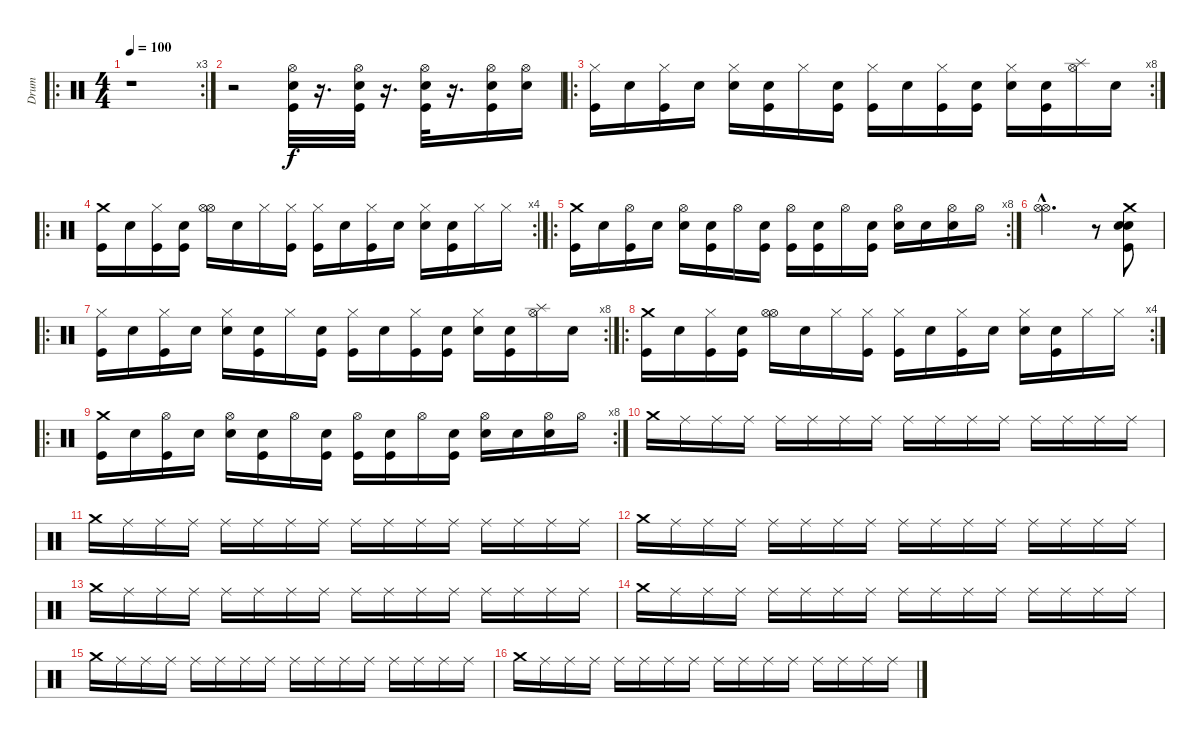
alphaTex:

\track ("Drum" "Drum") {instrument percussion}
\staff {score}
\articulation defaults
\ro
\rc 3
\ts (4 4)
\tempo 100
\clef neutral
\ks c
r.1{dy f} |
r.2 ("Hi-Hat (open)" "Electric Snare (hit)" "Kick (hit)").32 r.16{d} ("Hi-Hat (open)" "Electric Snare (hit)" "Kick (hit)").32 r.16{d} ("Hi-Hat (open)" "Electric Snare (hit)" "Kick (hit)").32 r.16{d} ("Hi-Hat (open)" "Electric Snare (hit)" "Kick (hit)").16 ("Hi-Hat (open)" "Electric Snare (hit)").16 |
\ro
\rc 8
("Hi-Hat (closed)" "Kick (hit)").16 "Snare (hit)".16 ("Hi-Hat (closed)" "Kick (hit)").16 "Snare (hit)".16 ("Hi-Hat (closed)" "Electric Snare (hit)").16 ("Snare (hit)" "Kick (hit)").16 "Hi-Hat (closed)".16 ("Snare (hit)" "Kick (hit)").16 ("Hi-Hat (closed)" "Kick (hit)").16 "Snare (hit)".16 ("Hi-Hat (closed)" "Kick (hit)").16 ("Snare (hit)" "Kick (hit)").16 ("Hi-Hat (closed)" "Electric Snare (hit)").16 ("Snare (hit)" "Kick (hit)").16 ("Hi-Hat (open)" "Splash (hit)").16 "Snare (hit)".16 |
\ro
\rc 4
("Crash medium (hit)" "Kick (hit)").16 "Snare (hit)".16 ("Hi-Hat (closed)" "Kick (hit)").16 ("Snare (hit)" "Kick (hit)").16 ("Hi-Hat (open)" "Hi-Hat (open)").16 "Snare (hit)".16 "Hi-Hat (closed)".16 ("Hi-Hat (closed)" "Kick (hit)").16 ("Hi-Hat (closed)" "Kick (hit)").16 "Snare (hit)".16 ("Hi-Hat (closed)" "Kick (hit)").16 "Snare (hit)".16 ("Hi-Hat (closed)" "Electric Snare (hit)").16 ("Snare (hit)" "Kick (hit)").16 "Hi-Hat (closed)".16 "Hi-Hat (closed)".16 |
\ro
\rc 8
("Crash medium (hit)" "Kick (hit)").16 "Snare (hit)".16 ("Hi-Hat (open)" "Kick (hit)").16 "Snare (hit)".16 ("Hi-Hat (open)" "Electric Snare (hit)").16 ("Snare (hit)" "Kick (hit)").16 "Hi-Hat (open)".16 ("Snare (hit)" "Kick (hit)").16 ("Hi-Hat (open)" "Kick (hit)").16 ("Snare (hit)" "Kick (hit)").16 "Hi-Hat (open)".16 ("Snare (hit)" "Kick (hit)").16 ("Hi-Hat (open)" "Electric Snare (hit)").16 "Snare (hit)".16 ("Hi-Hat (open)" "Electric Snare (hit)").16 "Hi-Hat (open)".16 |
("Hi-Hat (open)"{hac} "Hi-Hat (open)"{hac}).2{d} r.8 ("Crash medium (hit)" "Electric Snare (hit)" "Electric Snare (hit)" "Kick (hit)").8 |
\ro
\rc 8
("Hi-Hat (closed)" "Kick (hit)").16 "Snare (hit)".16 ("Hi-Hat (closed)" "Kick (hit)").16 "Snare (hit)".16 ("Hi-Hat (closed)" "Electric Snare (hit)").16 ("Snare (hit)" "Kick (hit)").16 "Hi-Hat (closed)".16 ("Snare (hit)" "Kick (hit)").16 ("Hi-Hat (closed)" "Kick (hit)").16 "Snare (hit)".16 ("Hi-Hat (closed)" "Kick (hit)").16 ("Snare (hit)" "Kick (hit)").16 ("Hi-Hat (closed)" "Electric Snare (hit)").16 ("Snare (hit)" "Kick (hit)").16 ("Hi-Hat (open)" "Splash (hit)").16 "Snare (hit)".16 |
\ro
\rc 4
("Crash medium (hit)" "Kick (hit)").16 "Snare (hit)".16 ("Hi-Hat (closed)" "Kick (hit)").16 ("Snare (hit)" "Kick (hit)").16 ("Hi-Hat (open)" "Hi-Hat (open)").16 "Snare (hit)".16 "Hi-Hat (closed)".16 ("Hi-Hat (closed)" "Kick (hit)").16 ("Hi-Hat (closed)" "Kick (hit)").16 "Snare (hit)".16 ("Hi-Hat (closed)" "Kick (hit)").16 "Snare (hit)".16 ("Hi-Hat (closed)" "Electric Snare (hit)").16 ("Snare (hit)" "Kick (hit)").16 "Hi-Hat (closed)".16 "Hi-Hat (closed)".16 |
\ro
\rc 8
("Crash medium (hit)" "Kick (hit)").16 "Snare (hit)".16 ("Hi-Hat (open)" "Kick (hit)").16 "Snare (hit)".16 ("Hi-Hat (open)" "Electric Snare (hit)").16 ("Snare (hit)" "Kick (hit)").16 "Hi-Hat (open)".16 ("Snare (hit)" "Kick (hit)").16 ("Hi-Hat (open)" "Kick (hit)").16 ("Snare (hit)" "Kick (hit)").16 "Hi-Hat (open)".16 ("Snare (hit)" "Kick (hit)").16 ("Hi-Hat (open)" "Electric Snare (hit)").16 "Snare (hit)".16 ("Hi-Hat (open)" "Electric Snare (hit)").16 "Hi-Hat (open)".16 |
"Crash medium (hit)".16 "Ride (middle)".16 "Ride (middle)".16 "Ride (middle)".16 "Ride (middle)".16 "Ride (middle)".16 "Ride (middle)".16 "Ride (middle)".16 "Ride (middle)".16 "Ride (middle)".16 "Ride (middle)".16 "Ride (middle)".16 "Ride (middle)".16 "Ride (middle)".16 "Ride (middle)".16 "Ride (middle)".16 |
"Crash medium (hit)".16 "Ride (middle)".16 "Ride (middle)".16 "Ride (middle)".16 "Ride (middle)".16 "Ride (middle)".16 "Ride (middle)".16 "Ride (middle)".16 "Ride (middle)".16 "Ride (middle)".16 "Ride (middle)".16 "Ride (middle)".16 "Ride (middle)".16 "Ride (middle)".16 "Ride (middle)".16 "Ride (middle)".16 |
"Crash medium (hit)".16 "Ride (middle)".16 "Ride (middle)".16 "Ride (middle)".16 "Ride (middle)".16 "Ride (middle)".16 "Ride (middle)".16 "Ride (middle)".16 "Ride (middle)".16 "Ride (middle)".16 "Ride (middle)".16 "Ride (middle)".16 "Ride (middle)".16 "Ride (middle)".16 "Ride (middle)".16 "Ride (middle)".16 |
"Crash medium (hit)".16 "Ride (middle)".16 "Ride (middle)".16 "Ride (middle)".16 "Ride (middle)".16 "Ride (middle)".16 "Ride (middle)".16 "Ride (middle)".16 "Ride (middle)".16 "Ride (middle)".16 "Ride (middle)".16 "Ride (middle)".16 "Ride (middle)".16 "Ride (middle)".16 "Ride (middle)".16 "Ride (middle)".16 |
"Crash medium (hit)".16 "Ride (middle)".16 "Ride (middle)".16 "Ride (middle)".16 "Ride (middle)".16 "Ride (middle)".16 "Ride (middle)".16 "Ride (middle)".16 "Ride (middle)".16 "Ride (middle)".16 "Ride (middle)".16 "Ride (middle)".16 "Ride (middle)".16 "Ride (middle)".16 "Ride (middle)".16 "Ride (middle)".16 |
"Crash medium (hit)".16 "Ride (middle)".16 "Ride (middle)".16 "Ride (middle)".16 "Ride (middle)".16 "Ride (middle)".16 "Ride (middle)".16 "Ride (middle)".16 "Ride (middle)".16 "Ride (middle)".16 "Ride (middle)".16 "Ride (middle)".16 "Ride (middle)".16 "Ride (middle)".16 "Ride (middle)".16 "Ride (middle)".16 |
"Crash medium (hit)".16 "Ride (middle)".16 "Ride (middle)".16 "Ride (middle)".16 "Ride (middle)".16 "Ride (middle)".16 "Ride (middle)".16 "Ride (middle)".16 "Ride (middle)".16 "Ride (middle)".16 "Ride (middle)".16 "Ride (middle)".16 "Ride (middle)".16 "Ride (middle)".16 "Ride (middle)".16 "Ride (middle)".16
